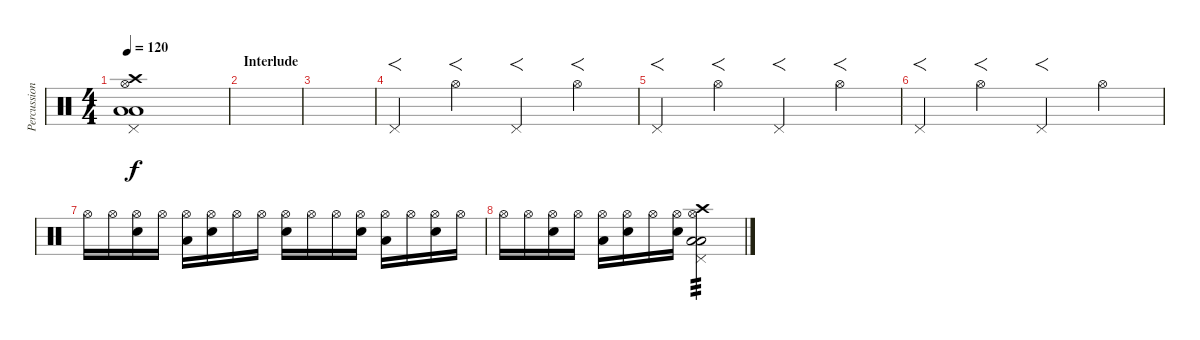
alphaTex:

\track ("Percussions" "Percussion") {instrument percussion}
\staff {score}
\articulation defaults
\ts (4 4)
\tempo 120
\clef neutral
\ks c
("Low Tom (hit)" "Pedal Hi-Hat (hit)" "Hi-Hat (open)" "Crash high (hit)" "Low Tom (hit)").1{dy f} |
\section ("" "Interlude")
|
|
"Pedal Hi-Hat (hit)".4{f} "Hi-Hat (open)".4{f} "Pedal Hi-Hat (hit)".4{f} "Hi-Hat (open)".4{f} |
"Pedal Hi-Hat (hit)".4{f} "Hi-Hat (open)".4{f} "Pedal Hi-Hat (hit)".4{f} "Hi-Hat (open)".4{f} |
"Pedal Hi-Hat (hit)".4{f} "Hi-Hat (open)".4{f} "Pedal Hi-Hat (hit)".4{f} "Hi-Hat (open)".4 |
"Hi-Hat (open)".16 "Hi-Hat (open)".16 ("Hi-Hat (open)" "Electric Snare (hit)").16 "Hi-Hat (open)".16 ("Low Tom (hit)" "Hi-Hat (open)").16 ("Hi-Hat (open)" "Electric Snare (hit)").16 "Hi-Hat (open)".16 "Hi-Hat (open)".16 ("Hi-Hat (open)" "Electric Snare (hit)").16 "Hi-Hat (open)".16 "Hi-Hat (open)".16 ("Hi-Hat (open)" "Electric Snare (hit)").16 ("Low Tom (hit)" "Hi-Hat (open)").16 "Hi-Hat (open)".16 ("Hi-Hat (open)" "Electric Snare (hit)").16 "Hi-Hat (open)".16 |
"Hi-Hat (open)".16 "Hi-Hat (open)".16 ("Hi-Hat (open)" "Electric Snare (hit)").16 "Hi-Hat (open)".16 ("Low Tom (hit)" "Hi-Hat (open)").16 ("Hi-Hat (open)" "Electric Snare (hit)").16 "Hi-Hat (open)".16 ("Hi-Hat (open)" "Electric Snare (hit)").16 ("Low Tom (hit)" "Pedal Hi-Hat (hit)" "Hi-Hat (open)" "Crash high (hit)" "Low Tom (hit)").2{tp 3}
